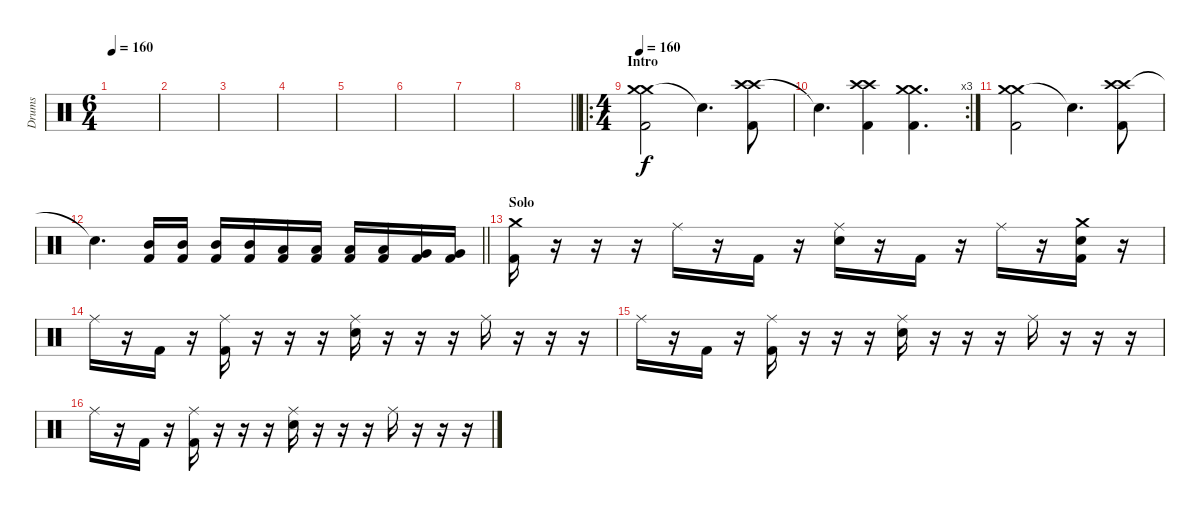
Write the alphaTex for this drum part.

\track ("Drums" "Drums") {instrument percussion}
\staff {score}
\articulation defaults
\ts (6 4)
\tempo 160
\tempo 80
\tempo 160
\clef neutral
\ks c
|
|
|
|
|
|
|
\barLineRight lightlight
|
\ro
\ts (4 4)
\section ("" "Intro")
\tempo 160
("Crash medium (hit)" "Crash medium (hit)" "Kick (hit) 2").2 "Snare (hit)"{t}.4{d} ("Crash high (hit)" "Crash high (hit)" "Kick (hit) 2").8 |
\rc 3 "Snare (hit)"{t}.4{d}
("Crash high (hit)" "Crash high (hit)" "Kick (hit) 2").4 ("Crash medium (hit)" "Crash medium (hit)" "Kick (hit) 2").4{d} |
("Crash medium (hit)" "Crash medium (hit)" "Kick (hit) 2").2 "Snare (hit)"{t}.4{d} ("Crash high (hit)" "Crash high (hit)" "Kick (hit) 2").8 |
\barLineRight lightlight "Snare (hit)"{t}.4{d}
("Mid Tom (hit)" "Kick (hit) 2").16 ("Mid Tom (hit)" "Kick (hit) 2").16 ("Mid Tom (hit)" "Kick (hit) 2").16 ("Mid Tom (hit)" "Kick (hit) 2").16 ("Low Tom (hit)" "Kick (hit) 2").16 ("Low Tom (hit)" "Kick (hit) 2").16 ("Low Tom (hit)" "Kick (hit) 2").16 ("Low Tom (hit)" "Kick (hit) 2").16 ("Very Low Tom (hit)" "Kick (hit) 2").16 ("Very Low Tom (hit)" "Kick (hit) 2").16 |
\section ("" "Solo")
("Crash medium (hit)" "Kick (hit) 2").16 r.16 r.16 r.16 "Ride (middle)".16 r.16 "Kick (hit) 2".16 r.16 ("Ride (middle)" "Electric Snare (hit)").16 r.16 "Kick (hit) 2".16 r.16 "Ride (middle)".16 r.16 ("Crash medium (hit)" "Electric Snare (hit)" "Kick (hit) 2").16 r.16 |
"Ride (middle)".16 r.16 "Kick (hit) 2".16 r.16 ("Ride (middle)" "Kick (hit) 2").16 r.16 r.16 r.16 ("Ride (middle)" "Electric Snare (hit)").16 r.16 r.16 r.16 "Ride (middle)".16 r.16 r.16 r.16 |
"Ride (middle)".16 r.16 "Kick (hit) 2".16 r.16 ("Ride (middle)" "Kick (hit) 2").16 r.16 r.16 r.16 ("Ride (middle)" "Electric Snare (hit)").16 r.16 r.16 r.16 "Ride (middle)".16 r.16 r.16 r.16 |
"Ride (middle)".16 r.16 "Kick (hit) 2".16 r.16 ("Ride (middle)" "Kick (hit) 2").16 r.16 r.16 r.16 ("Ride (middle)" "Electric Snare (hit)").16 r.16 r.16 r.16 "Ride (middle)".16 r.16 r.16 r.16
